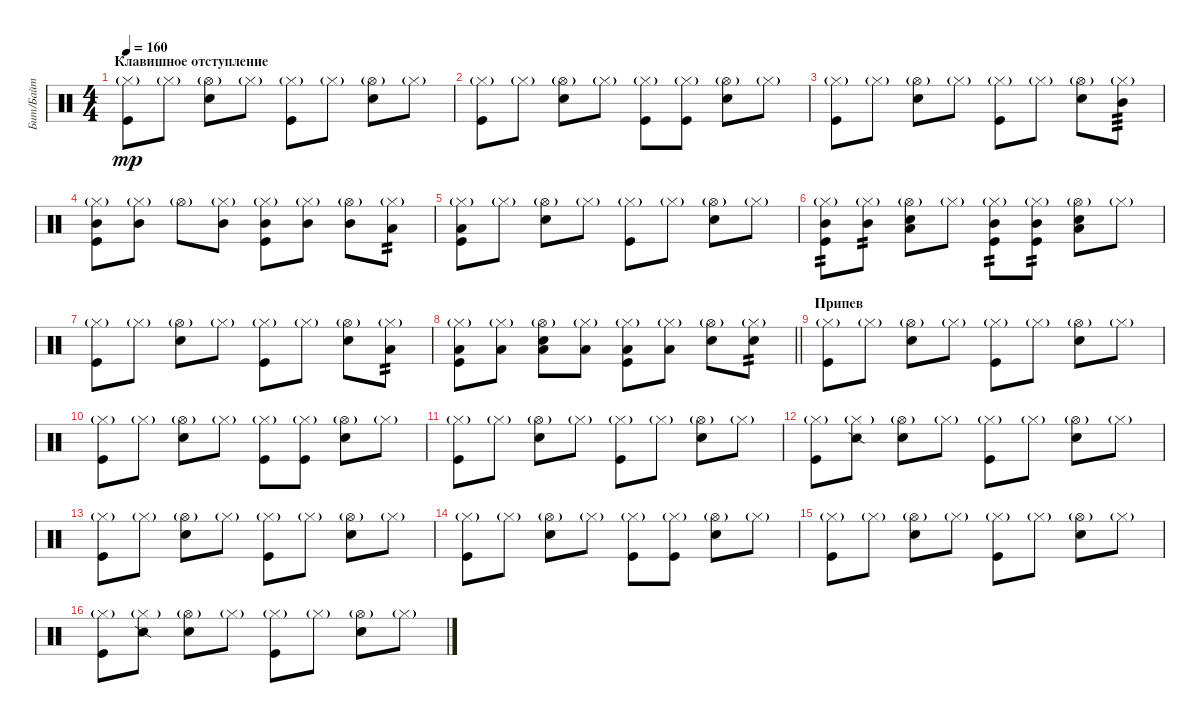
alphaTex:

\track ("Бит/Байт" "Бит/Байт") {instrument percussion}
\staff {score}
\articulation defaults
\ts (4 4)
\section ("" "Клавишное отступление")
\tempo 160
\clef neutral
\ks c
("Hi-Hat (closed)"{g} "Kick (hit)").8{dy mp} "Hi-Hat (closed)"{g}.8 ("Hi-Hat (open)"{g} "Snare (hit) 2").8 "Hi-Hat (closed)"{g}.8 ("Hi-Hat (closed)"{g} "Kick (hit)").8 "Hi-Hat (closed)"{g}.8 ("Hi-Hat (open)"{g} "Snare (hit) 2").8 "Hi-Hat (closed)"{g}.8 |
("Hi-Hat (closed)"{g} "Kick (hit)").8 "Hi-Hat (closed)"{g}.8 ("Hi-Hat (open)"{g} "Snare (hit) 2").8 "Hi-Hat (closed)"{g}.8 ("Hi-Hat (closed)"{g} "Kick (hit)").8 ("Hi-Hat (closed)"{g} "Kick (hit)").8 ("Hi-Hat (open)"{g} "Snare (hit) 2").8 "Hi-Hat (closed)"{g}.8 |
("Hi-Hat (closed)"{g} "Kick (hit)").8 "Hi-Hat (closed)"{g}.8 ("Hi-Hat (open)"{g} "Snare (hit) 2").8 "Hi-Hat (closed)"{g}.8 ("Hi-Hat (closed)"{g} "Kick (hit)").8 "Hi-Hat (closed)"{g}.8 ("Hi-Hat (open)"{g} "Snare (hit) 2").8 ("Hi-Hat (closed)"{g} "Mid Tom (hit)").8{tp 3} |
("Hi-Hat (closed)"{g} "Mid Tom (hit)" "Kick (hit)").8 ("Hi-Hat (closed)"{g} "Mid Tom (hit)").8 "Hi-Hat (open)"{g}.8 ("Hi-Hat (closed)"{g} "Mid Tom (hit)").8 ("Hi-Hat (closed)"{g} "Mid Tom (hit)" "Kick (hit)").8 ("Hi-Hat (closed)"{g} "Mid Tom (hit)").8 ("Hi-Hat (open)"{g} "Mid Tom (hit)").8 ("Hi-Hat (closed)"{g} "Low Tom (hit)").8{tp 2} |
("Hi-Hat (closed)"{g} "Low Tom (hit)" "Kick (hit)").8 "Hi-Hat (closed)"{g}.8 ("Hi-Hat (open)"{g} "Snare (hit) 2").8 "Hi-Hat (closed)"{g}.8 ("Hi-Hat (closed)"{g} "Kick (hit)").8 "Hi-Hat (closed)"{g}.8 ("Hi-Hat (open)"{g} "Snare (hit) 2").8 "Hi-Hat (closed)"{g}.8 |
("Hi-Hat (closed)"{g} "Mid Tom (hit)" "Kick (hit)").8{tp 2} ("Hi-Hat (closed)"{g} "Mid Tom (hit)").8{tp 2} ("Hi-Hat (open)"{g} "Low Tom (hit)" "Snare (hit) 2").8 "Hi-Hat (closed)"{g}.8 ("Hi-Hat (closed)"{g} "Mid Tom (hit)" "Kick (hit)").8{tp 2} ("Hi-Hat (closed)"{g} "Mid Tom (hit)" "Kick (hit)").8{tp 2} ("Hi-Hat (open)"{g} "Low Tom (hit)" "Snare (hit) 2").8 "Hi-Hat (closed)"{g}.8 |
("Hi-Hat (closed)"{g} "Kick (hit)").8 "Hi-Hat (closed)"{g}.8 ("Hi-Hat (open)"{g} "Snare (hit) 2").8 "Hi-Hat (closed)"{g}.8 ("Hi-Hat (closed)"{g} "Kick (hit)").8 "Hi-Hat (closed)"{g}.8 ("Hi-Hat (open)"{g} "Snare (hit) 2").8 ("Hi-Hat (closed)"{g} "Low Tom (hit)").8{tp 2} |
\barLineRight lightlight
("Hi-Hat (closed)"{g} "Low Tom (hit)" "Kick (hit)").8 ("Hi-Hat (closed)"{g} "Low Tom (hit)").8 ("Hi-Hat (open)"{g} "Low Tom (hit)" "Snare (hit) 2").8 ("Hi-Hat (closed)"{g} "Low Tom (hit)").8 ("Hi-Hat (closed)"{g} "Low Tom (hit)" "Kick (hit)").8 ("Hi-Hat (closed)"{g} "Low Tom (hit)").8 ("Hi-Hat (open)"{g} "Snare (hit) 2").8 ("Hi-Hat (closed)"{g} "Snare (hit) 2").8{tp 2} |
\section ("" "Припев")
("Hi-Hat (closed)"{g} "Kick (hit)").8 "Hi-Hat (closed)"{g}.8 ("Hi-Hat (open)"{g} "Snare (hit) 2").8 "Hi-Hat (closed)"{g}.8 ("Hi-Hat (closed)"{g} "Kick (hit)").8 "Hi-Hat (closed)"{g}.8 ("Hi-Hat (open)"{g} "Snare (hit) 2").8 "Hi-Hat (closed)"{g}.8 |
("Hi-Hat (closed)"{g} "Kick (hit)").8 "Hi-Hat (closed)"{g}.8 ("Hi-Hat (open)"{g} "Snare (hit) 2").8 "Hi-Hat (closed)"{g}.8 ("Hi-Hat (closed)"{g} "Kick (hit)").8 ("Hi-Hat (closed)"{g} "Kick (hit)").8 ("Hi-Hat (open)"{g} "Snare (hit) 2").8 "Hi-Hat (closed)"{g}.8 |
("Hi-Hat (closed)"{g} "Kick (hit)").8 "Hi-Hat (closed)"{g}.8 ("Hi-Hat (open)"{g} "Snare (hit) 2").8 "Hi-Hat (closed)"{g}.8 ("Hi-Hat (closed)"{g} "Kick (hit)").8 "Hi-Hat (closed)"{g}.8 ("Hi-Hat (open)"{g} "Snare (hit) 2").8 "Hi-Hat (closed)"{g}.8 |
("Hi-Hat (closed)"{g} "Kick (hit)").8 ("Hi-Hat (closed)"{g} "Snare (side stick) 2").8 ("Hi-Hat (open)"{g} "Snare (hit) 2").8 "Hi-Hat (closed)"{g}.8 ("Hi-Hat (closed)"{g} "Kick (hit)").8 "Hi-Hat (closed)"{g}.8 ("Hi-Hat (open)"{g} "Snare (hit) 2").8 "Hi-Hat (closed)"{g}.8 |
("Hi-Hat (closed)"{g} "Kick (hit)").8 "Hi-Hat (closed)"{g}.8 ("Hi-Hat (open)"{g} "Snare (hit) 2").8 "Hi-Hat (closed)"{g}.8 ("Hi-Hat (closed)"{g} "Kick (hit)").8 "Hi-Hat (closed)"{g}.8 ("Hi-Hat (open)"{g} "Snare (hit) 2").8 "Hi-Hat (closed)"{g}.8 |
("Hi-Hat (closed)"{g} "Kick (hit)").8 "Hi-Hat (closed)"{g}.8 ("Hi-Hat (open)"{g} "Snare (hit) 2").8 "Hi-Hat (closed)"{g}.8 ("Hi-Hat (closed)"{g} "Kick (hit)").8 ("Hi-Hat (closed)"{g} "Kick (hit)").8 ("Hi-Hat (open)"{g} "Snare (hit) 2").8 "Hi-Hat (closed)"{g}.8 |
("Hi-Hat (closed)"{g} "Kick (hit)").8 "Hi-Hat (closed)"{g}.8 ("Hi-Hat (open)"{g} "Snare (hit) 2").8 "Hi-Hat (closed)"{g}.8 ("Hi-Hat (closed)"{g} "Kick (hit)").8 "Hi-Hat (closed)"{g}.8 ("Hi-Hat (open)"{g} "Snare (hit) 2").8 "Hi-Hat (closed)"{g}.8 |
("Hi-Hat (closed)"{g} "Kick (hit)").8 ("Hi-Hat (closed)"{g} "Snare (side stick) 2").8 ("Hi-Hat (open)"{g} "Snare (hit) 2").8 "Hi-Hat (closed)"{g}.8 ("Hi-Hat (closed)"{g} "Kick (hit)").8 "Hi-Hat (closed)"{g}.8 ("Hi-Hat (open)"{g} "Snare (hit) 2").8 "Hi-Hat (closed)"{g}.8
